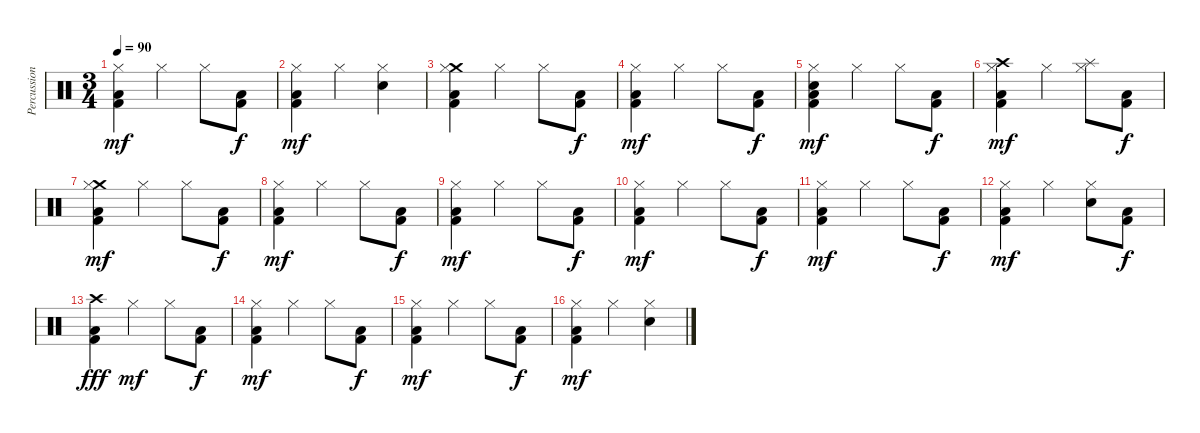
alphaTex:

\track ("Percussion" "Percussion") {instrument percussion}
\staff {score}
\articulation defaults
\ts (3 4)
\tempo 90
\clef neutral
\ks c
("Hi-Hat (closed)" "Low Floor Tom (hit)" "Kick (hit) 2").4{dy mf} "Hi-Hat (closed)".4 "Hi-Hat (closed)".8 ("Low Floor Tom (hit)" "Kick (hit) 2").8{dy f} |
("Hi-Hat (closed)" "Low Floor Tom (hit)" "Kick (hit) 2").4{dy mf} "Hi-Hat (closed)".4 ("Electric Snare (hit)" "Hi-Hat (closed)").4 |
("Crash medium (hit)" "Hi-Hat (closed)" "Low Floor Tom (hit)" "Kick (hit) 2").4 "Hi-Hat (closed)".4 "Hi-Hat (closed)".8 ("Low Floor Tom (hit)" "Kick (hit) 2").8{dy f} |
("Hi-Hat (closed)" "Low Floor Tom (hit)" "Kick (hit) 2").4{dy mf} "Hi-Hat (closed)".4 "Hi-Hat (closed)".8 ("Low Floor Tom (hit)" "Kick (hit) 2").8{dy f} |
("Electric Snare (hit)" "Hi-Hat (closed)" "Low Floor Tom (hit)" "Kick (hit) 2").4{dy mf} "Hi-Hat (closed)".4 "Hi-Hat (closed)".8 ("Low Floor Tom (hit)" "Kick (hit) 2").8{dy f} |
("Crash high (hit)" "Hi-Hat (closed)" "Low Floor Tom (hit)" "Kick (hit) 2").4{dy mf} "Hi-Hat (closed)".4 ("Splash (hit)" "Hi-Hat (closed)").8 ("Low Floor Tom (hit)" "Kick (hit) 2").8{dy f} |
("Crash medium (hit)" "Hi-Hat (closed)" "Low Floor Tom (hit)" "Kick (hit) 2").4{dy mf} "Hi-Hat (closed)".4 "Hi-Hat (closed)".8 ("Low Floor Tom (hit)" "Kick (hit) 2").8{dy f} |
("Hi-Hat (closed)" "Low Floor Tom (hit)" "Kick (hit) 2").4{dy mf} "Hi-Hat (closed)".4 "Hi-Hat (closed)".8 ("Low Floor Tom (hit)" "Kick (hit) 2").8{dy f} |
("Hi-Hat (closed)" "Low Floor Tom (hit)" "Kick (hit) 2").4{dy mf} "Hi-Hat (closed)".4 "Hi-Hat (closed)".8 ("Low Floor Tom (hit)" "Kick (hit) 2").8{dy f} |
("Hi-Hat (closed)" "Low Floor Tom (hit)" "Kick (hit) 2").4{dy mf} "Hi-Hat (closed)".4 "Hi-Hat (closed)".8 ("Low Floor Tom (hit)" "Kick (hit) 2").8{dy f} |
("Hi-Hat (closed)" "Low Floor Tom (hit)" "Kick (hit) 2").4{dy mf} "Hi-Hat (closed)".4 "Hi-Hat (closed)".8 ("Low Floor Tom (hit)" "Kick (hit) 2").8{dy f} |
("Hi-Hat (closed)" "Low Floor Tom (hit)" "Kick (hit) 2").4{dy mf} "Hi-Hat (closed)".4 ("Electric Snare (hit)" "Hi-Hat (closed)").8 ("Low Floor Tom (hit)" "Kick (hit) 2").8{dy f} |
("Crash high (hit)" "Low Floor Tom (hit)" "Kick (hit) 2").4{dy fff} "Hi-Hat (closed)".4{dy mf} "Hi-Hat (closed)".8 ("Low Floor Tom (hit)" "Kick (hit) 2").8{dy f} |
("Hi-Hat (closed)" "Low Floor Tom (hit)" "Kick (hit) 2").4{dy mf} "Hi-Hat (closed)".4 "Hi-Hat (closed)".8 ("Low Floor Tom (hit)" "Kick (hit) 2").8{dy f} |
("Hi-Hat (closed)" "Low Floor Tom (hit)" "Kick (hit) 2").4{dy mf} "Hi-Hat (closed)".4 "Hi-Hat (closed)".8 ("Low Floor Tom (hit)" "Kick (hit) 2").8{dy f} |
("Hi-Hat (closed)" "Low Floor Tom (hit)" "Kick (hit) 2").4{dy mf} "Hi-Hat (closed)".4 ("Electric Snare (hit)" "Hi-Hat (closed)").4
